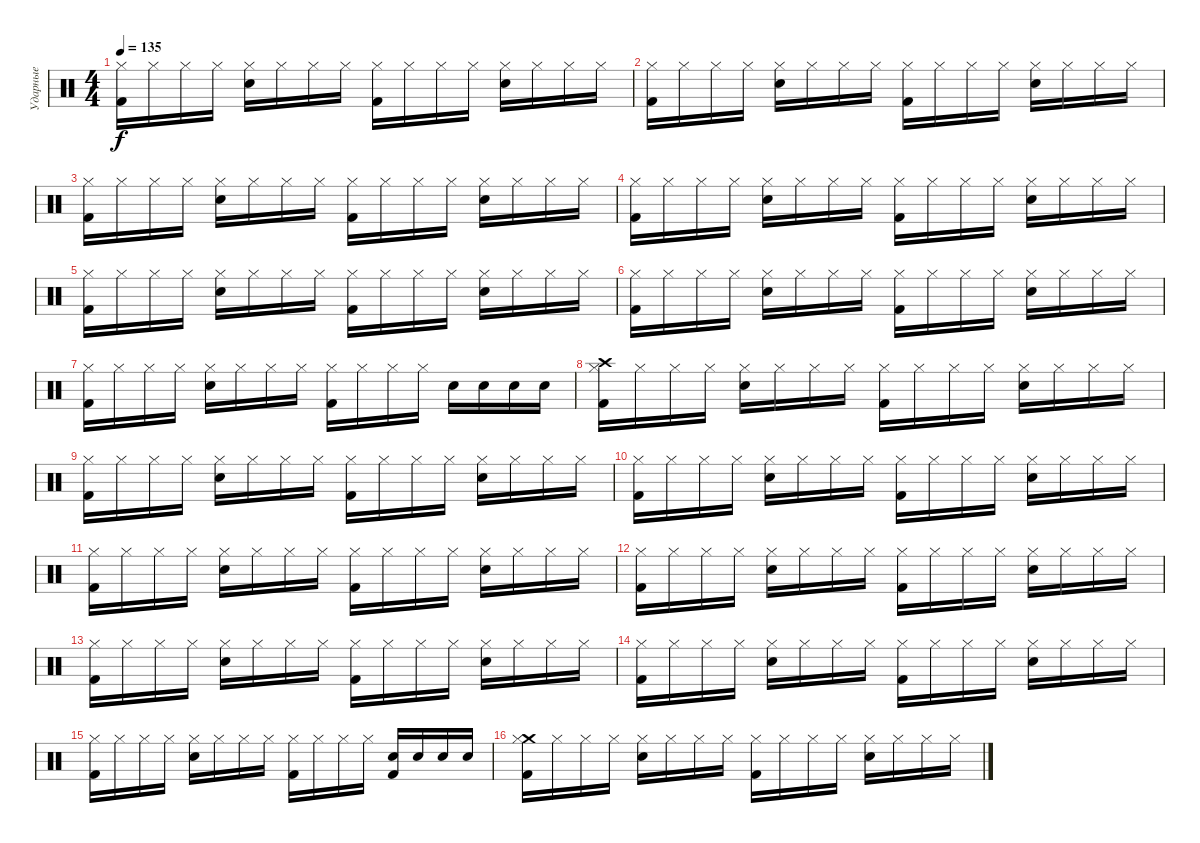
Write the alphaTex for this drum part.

\track ("Ударные" "Ударные") {instrument percussion}
\staff {score}
\articulation defaults
\ts (4 4)
\tempo 135
\clef neutral
\ks c
("Hi-Hat (closed)" "Kick (hit) 2").16{dy f} "Hi-Hat (closed)".16 "Hi-Hat (closed)".16 "Hi-Hat (closed)".16 ("Hi-Hat (closed)" "Snare (hit) 2").16 "Hi-Hat (closed)".16 "Hi-Hat (closed)".16 "Hi-Hat (closed)".16 ("Hi-Hat (closed)" "Kick (hit) 2").16 "Hi-Hat (closed)".16 "Hi-Hat (closed)".16 "Hi-Hat (closed)".16 ("Hi-Hat (closed)" "Snare (hit) 2").16 "Hi-Hat (closed)".16 "Hi-Hat (closed)".16 "Hi-Hat (closed)".16 |
("Hi-Hat (closed)" "Kick (hit) 2").16 "Hi-Hat (closed)".16 "Hi-Hat (closed)".16 "Hi-Hat (closed)".16 ("Hi-Hat (closed)" "Snare (hit) 2").16 "Hi-Hat (closed)".16 "Hi-Hat (closed)".16 "Hi-Hat (closed)".16 ("Hi-Hat (closed)" "Kick (hit) 2").16 "Hi-Hat (closed)".16 "Hi-Hat (closed)".16 "Hi-Hat (closed)".16 ("Hi-Hat (closed)" "Snare (hit) 2").16 "Hi-Hat (closed)".16 "Hi-Hat (closed)".16 "Hi-Hat (closed)".16 |
("Hi-Hat (closed)" "Kick (hit) 2").16 "Hi-Hat (closed)".16 "Hi-Hat (closed)".16 "Hi-Hat (closed)".16 ("Hi-Hat (closed)" "Snare (hit) 2").16 "Hi-Hat (closed)".16 "Hi-Hat (closed)".16 "Hi-Hat (closed)".16 ("Hi-Hat (closed)" "Kick (hit) 2").16 "Hi-Hat (closed)".16 "Hi-Hat (closed)".16 "Hi-Hat (closed)".16 ("Hi-Hat (closed)" "Snare (hit) 2").16 "Hi-Hat (closed)".16 "Hi-Hat (closed)".16 "Hi-Hat (closed)".16 |
("Hi-Hat (closed)" "Kick (hit) 2").16 "Hi-Hat (closed)".16 "Hi-Hat (closed)".16 "Hi-Hat (closed)".16 ("Hi-Hat (closed)" "Snare (hit) 2").16 "Hi-Hat (closed)".16 "Hi-Hat (closed)".16 "Hi-Hat (closed)".16 ("Hi-Hat (closed)" "Kick (hit) 2").16 "Hi-Hat (closed)".16 "Hi-Hat (closed)".16 "Hi-Hat (closed)".16 ("Hi-Hat (closed)" "Snare (hit) 2").16 "Hi-Hat (closed)".16 "Hi-Hat (closed)".16 "Hi-Hat (closed)".16 |
("Hi-Hat (closed)" "Kick (hit) 2").16 "Hi-Hat (closed)".16 "Hi-Hat (closed)".16 "Hi-Hat (closed)".16 ("Hi-Hat (closed)" "Snare (hit) 2").16 "Hi-Hat (closed)".16 "Hi-Hat (closed)".16 "Hi-Hat (closed)".16 ("Hi-Hat (closed)" "Kick (hit) 2").16 "Hi-Hat (closed)".16 "Hi-Hat (closed)".16 "Hi-Hat (closed)".16 ("Hi-Hat (closed)" "Snare (hit) 2").16 "Hi-Hat (closed)".16 "Hi-Hat (closed)".16 "Hi-Hat (closed)".16 |
("Hi-Hat (closed)" "Kick (hit) 2").16 "Hi-Hat (closed)".16 "Hi-Hat (closed)".16 "Hi-Hat (closed)".16 ("Hi-Hat (closed)" "Snare (hit) 2").16 "Hi-Hat (closed)".16 "Hi-Hat (closed)".16 "Hi-Hat (closed)".16 ("Hi-Hat (closed)" "Kick (hit) 2").16 "Hi-Hat (closed)".16 "Hi-Hat (closed)".16 "Hi-Hat (closed)".16 ("Hi-Hat (closed)" "Snare (hit) 2").16 "Hi-Hat (closed)".16 "Hi-Hat (closed)".16 "Hi-Hat (closed)".16 |
("Hi-Hat (closed)" "Kick (hit) 2").16 "Hi-Hat (closed)".16 "Hi-Hat (closed)".16 "Hi-Hat (closed)".16 ("Hi-Hat (closed)" "Snare (hit) 2").16 "Hi-Hat (closed)".16 "Hi-Hat (closed)".16 "Hi-Hat (closed)".16 ("Hi-Hat (closed)" "Kick (hit) 2").16 "Hi-Hat (closed)".16 "Hi-Hat (closed)".16 "Hi-Hat (closed)".16 "Snare (hit) 2".16 "Snare (hit) 2".16 "Snare (hit) 2".16 "Snare (hit) 2".16 |
("Crash high (hit)" "Hi-Hat (closed)" "Kick (hit) 2").16 "Hi-Hat (closed)".16 "Hi-Hat (closed)".16 "Hi-Hat (closed)".16 ("Hi-Hat (closed)" "Snare (hit) 2").16 "Hi-Hat (closed)".16 "Hi-Hat (closed)".16 "Hi-Hat (closed)".16 ("Hi-Hat (closed)" "Kick (hit) 2").16 "Hi-Hat (closed)".16 "Hi-Hat (closed)".16 "Hi-Hat (closed)".16 ("Hi-Hat (closed)" "Snare (hit) 2").16 "Hi-Hat (closed)".16 "Hi-Hat (closed)".16 "Hi-Hat (closed)".16 |
("Hi-Hat (closed)" "Kick (hit) 2").16 "Hi-Hat (closed)".16 "Hi-Hat (closed)".16 "Hi-Hat (closed)".16 ("Hi-Hat (closed)" "Snare (hit) 2").16 "Hi-Hat (closed)".16 "Hi-Hat (closed)".16 "Hi-Hat (closed)".16 ("Hi-Hat (closed)" "Kick (hit) 2").16 "Hi-Hat (closed)".16 "Hi-Hat (closed)".16 "Hi-Hat (closed)".16 ("Hi-Hat (closed)" "Snare (hit) 2").16 "Hi-Hat (closed)".16 "Hi-Hat (closed)".16 "Hi-Hat (closed)".16 |
("Hi-Hat (closed)" "Kick (hit) 2").16 "Hi-Hat (closed)".16 "Hi-Hat (closed)".16 "Hi-Hat (closed)".16 ("Hi-Hat (closed)" "Snare (hit) 2").16 "Hi-Hat (closed)".16 "Hi-Hat (closed)".16 "Hi-Hat (closed)".16 ("Hi-Hat (closed)" "Kick (hit) 2").16 "Hi-Hat (closed)".16 "Hi-Hat (closed)".16 "Hi-Hat (closed)".16 ("Hi-Hat (closed)" "Snare (hit) 2").16 "Hi-Hat (closed)".16 "Hi-Hat (closed)".16 "Hi-Hat (closed)".16 |
("Hi-Hat (closed)" "Kick (hit) 2").16 "Hi-Hat (closed)".16 "Hi-Hat (closed)".16 "Hi-Hat (closed)".16 ("Hi-Hat (closed)" "Snare (hit) 2").16 "Hi-Hat (closed)".16 "Hi-Hat (closed)".16 "Hi-Hat (closed)".16 ("Hi-Hat (closed)" "Kick (hit) 2").16 "Hi-Hat (closed)".16 "Hi-Hat (closed)".16 "Hi-Hat (closed)".16 ("Hi-Hat (closed)" "Snare (hit) 2").16 "Hi-Hat (closed)".16 "Hi-Hat (closed)".16 "Hi-Hat (closed)".16 |
("Hi-Hat (closed)" "Kick (hit) 2").16 "Hi-Hat (closed)".16 "Hi-Hat (closed)".16 "Hi-Hat (closed)".16 ("Hi-Hat (closed)" "Snare (hit) 2").16 "Hi-Hat (closed)".16 "Hi-Hat (closed)".16 "Hi-Hat (closed)".16 ("Hi-Hat (closed)" "Kick (hit) 2").16 "Hi-Hat (closed)".16 "Hi-Hat (closed)".16 "Hi-Hat (closed)".16 ("Hi-Hat (closed)" "Snare (hit) 2").16 "Hi-Hat (closed)".16 "Hi-Hat (closed)".16 "Hi-Hat (closed)".16 |
("Hi-Hat (closed)" "Kick (hit) 2").16 "Hi-Hat (closed)".16 "Hi-Hat (closed)".16 "Hi-Hat (closed)".16 ("Hi-Hat (closed)" "Snare (hit) 2").16 "Hi-Hat (closed)".16 "Hi-Hat (closed)".16 "Hi-Hat (closed)".16 ("Hi-Hat (closed)" "Kick (hit) 2").16 "Hi-Hat (closed)".16 "Hi-Hat (closed)".16 "Hi-Hat (closed)".16 ("Hi-Hat (closed)" "Snare (hit) 2").16 "Hi-Hat (closed)".16 "Hi-Hat (closed)".16 "Hi-Hat (closed)".16 |
("Hi-Hat (closed)" "Kick (hit) 2").16 "Hi-Hat (closed)".16 "Hi-Hat (closed)".16 "Hi-Hat (closed)".16 ("Hi-Hat (closed)" "Snare (hit) 2").16 "Hi-Hat (closed)".16 "Hi-Hat (closed)".16 "Hi-Hat (closed)".16 ("Hi-Hat (closed)" "Kick (hit) 2").16 "Hi-Hat (closed)".16 "Hi-Hat (closed)".16 "Hi-Hat (closed)".16 ("Hi-Hat (closed)" "Snare (hit) 2").16 "Hi-Hat (closed)".16 "Hi-Hat (closed)".16 "Hi-Hat (closed)".16 |
("Hi-Hat (closed)" "Kick (hit) 2").16 "Hi-Hat (closed)".16 "Hi-Hat (closed)".16 "Hi-Hat (closed)".16 ("Hi-Hat (closed)" "Snare (hit) 2").16 "Hi-Hat (closed)".16 "Hi-Hat (closed)".16 "Hi-Hat (closed)".16 ("Hi-Hat (closed)" "Kick (hit) 2").16 "Hi-Hat (closed)".16 "Hi-Hat (closed)".16 "Hi-Hat (closed)".16 ("Snare (hit) 2" "Kick (hit) 2").16 "Snare (hit) 2".16 "Snare (hit) 2".16 "Snare (hit) 2".16 |
("Crash medium (hit)" "Hi-Hat (closed)" "Kick (hit) 2").16 "Hi-Hat (closed)".16 "Hi-Hat (closed)".16 "Hi-Hat (closed)".16 ("Hi-Hat (closed)" "Snare (hit) 2").16 "Hi-Hat (closed)".16 "Hi-Hat (closed)".16 "Hi-Hat (closed)".16 ("Hi-Hat (closed)" "Kick (hit) 2").16 "Hi-Hat (closed)".16 "Hi-Hat (closed)".16 "Hi-Hat (closed)".16 ("Hi-Hat (closed)" "Snare (hit) 2").16 "Hi-Hat (closed)".16 "Hi-Hat (closed)".16 "Hi-Hat (closed)".16
